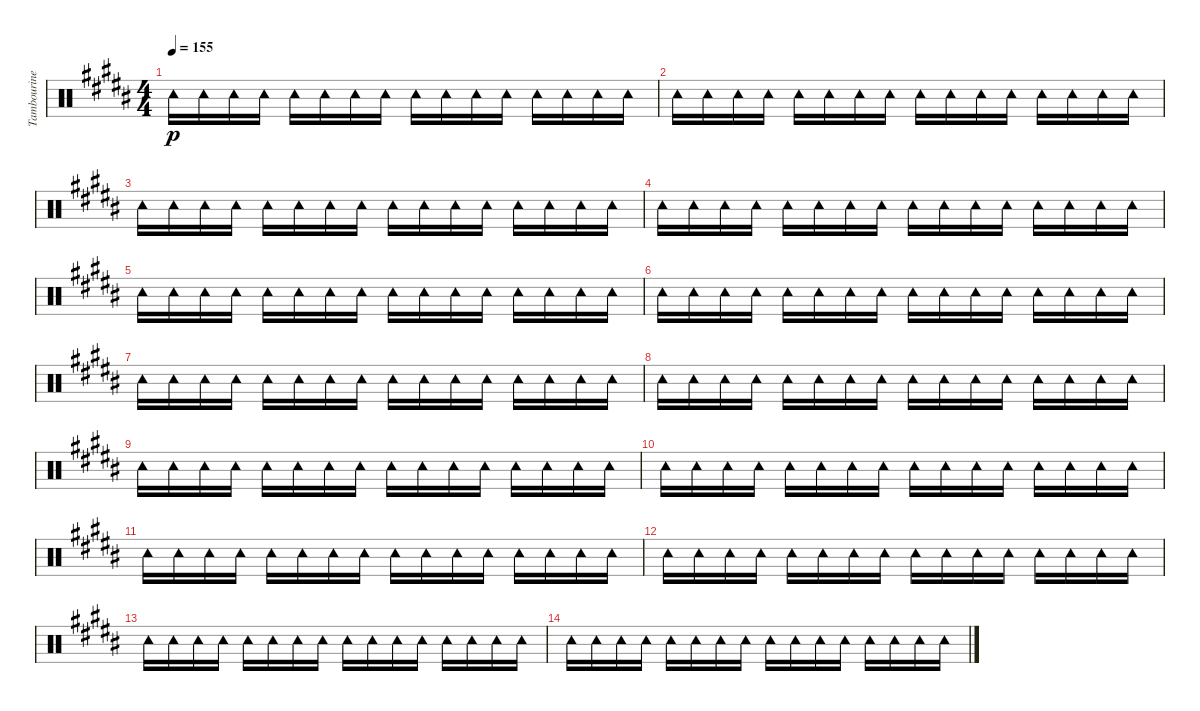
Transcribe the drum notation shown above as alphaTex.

\track ("Tambourine" "Tambourine") {instrument percussion}
\staff {score}
\articulation defaults
\ts (4 4)
\tempo 155
\clef neutral
\ks b "Tambourine (hit)".16{dy p} "Tambourine (hit)".16 "Tambourine (hit)".16 "Tambourine (hit)".16 "Tambourine (hit)".16 "Tambourine (hit)".16 "Tambourine (hit)".16 "Tambourine (hit)".16 "Tambourine (hit)".16 "Tambourine (hit)".16 "Tambourine (hit)".16 "Tambourine (hit)".16 "Tambourine (hit)".16 "Tambourine (hit)".16 "Tambourine (hit)".16 "Tambourine (hit)".16
|
"Tambourine (hit)".16 "Tambourine (hit)".16 "Tambourine (hit)".16 "Tambourine (hit)".16 "Tambourine (hit)".16 "Tambourine (hit)".16 "Tambourine (hit)".16 "Tambourine (hit)".16 "Tambourine (hit)".16 "Tambourine (hit)".16 "Tambourine (hit)".16 "Tambourine (hit)".16 "Tambourine (hit)".16 "Tambourine (hit)".16 "Tambourine (hit)".16 "Tambourine (hit)".16 |
"Tambourine (hit)".16 "Tambourine (hit)".16 "Tambourine (hit)".16 "Tambourine (hit)".16 "Tambourine (hit)".16 "Tambourine (hit)".16 "Tambourine (hit)".16 "Tambourine (hit)".16 "Tambourine (hit)".16 "Tambourine (hit)".16 "Tambourine (hit)".16 "Tambourine (hit)".16 "Tambourine (hit)".16 "Tambourine (hit)".16 "Tambourine (hit)".16 "Tambourine (hit)".16 |
"Tambourine (hit)".16 "Tambourine (hit)".16 "Tambourine (hit)".16 "Tambourine (hit)".16 "Tambourine (hit)".16 "Tambourine (hit)".16 "Tambourine (hit)".16 "Tambourine (hit)".16 "Tambourine (hit)".16 "Tambourine (hit)".16 "Tambourine (hit)".16 "Tambourine (hit)".16 "Tambourine (hit)".16 "Tambourine (hit)".16 "Tambourine (hit)".16 "Tambourine (hit)".16 |
"Tambourine (hit)".16 "Tambourine (hit)".16 "Tambourine (hit)".16 "Tambourine (hit)".16 "Tambourine (hit)".16 "Tambourine (hit)".16 "Tambourine (hit)".16 "Tambourine (hit)".16 "Tambourine (hit)".16 "Tambourine (hit)".16 "Tambourine (hit)".16 "Tambourine (hit)".16 "Tambourine (hit)".16 "Tambourine (hit)".16 "Tambourine (hit)".16 "Tambourine (hit)".16 |
"Tambourine (hit)".16 "Tambourine (hit)".16 "Tambourine (hit)".16 "Tambourine (hit)".16 "Tambourine (hit)".16 "Tambourine (hit)".16 "Tambourine (hit)".16 "Tambourine (hit)".16 "Tambourine (hit)".16 "Tambourine (hit)".16 "Tambourine (hit)".16 "Tambourine (hit)".16 "Tambourine (hit)".16 "Tambourine (hit)".16 "Tambourine (hit)".16 "Tambourine (hit)".16 |
"Tambourine (hit)".16 "Tambourine (hit)".16 "Tambourine (hit)".16 "Tambourine (hit)".16 "Tambourine (hit)".16 "Tambourine (hit)".16 "Tambourine (hit)".16 "Tambourine (hit)".16 "Tambourine (hit)".16 "Tambourine (hit)".16 "Tambourine (hit)".16 "Tambourine (hit)".16 "Tambourine (hit)".16 "Tambourine (hit)".16 "Tambourine (hit)".16 "Tambourine (hit)".16 |
"Tambourine (hit)".16 "Tambourine (hit)".16 "Tambourine (hit)".16 "Tambourine (hit)".16 "Tambourine (hit)".16 "Tambourine (hit)".16 "Tambourine (hit)".16 "Tambourine (hit)".16 "Tambourine (hit)".16 "Tambourine (hit)".16 "Tambourine (hit)".16 "Tambourine (hit)".16 "Tambourine (hit)".16 "Tambourine (hit)".16 "Tambourine (hit)".16 "Tambourine (hit)".16 |
"Tambourine (hit)".16 "Tambourine (hit)".16 "Tambourine (hit)".16 "Tambourine (hit)".16 "Tambourine (hit)".16 "Tambourine (hit)".16 "Tambourine (hit)".16 "Tambourine (hit)".16 "Tambourine (hit)".16 "Tambourine (hit)".16 "Tambourine (hit)".16 "Tambourine (hit)".16 "Tambourine (hit)".16 "Tambourine (hit)".16 "Tambourine (hit)".16 "Tambourine (hit)".16 |
"Tambourine (hit)".16 "Tambourine (hit)".16 "Tambourine (hit)".16 "Tambourine (hit)".16 "Tambourine (hit)".16 "Tambourine (hit)".16 "Tambourine (hit)".16 "Tambourine (hit)".16 "Tambourine (hit)".16 "Tambourine (hit)".16 "Tambourine (hit)".16 "Tambourine (hit)".16 "Tambourine (hit)".16 "Tambourine (hit)".16 "Tambourine (hit)".16 "Tambourine (hit)".16 |
"Tambourine (hit)".16 "Tambourine (hit)".16 "Tambourine (hit)".16 "Tambourine (hit)".16 "Tambourine (hit)".16 "Tambourine (hit)".16 "Tambourine (hit)".16 "Tambourine (hit)".16 "Tambourine (hit)".16 "Tambourine (hit)".16 "Tambourine (hit)".16 "Tambourine (hit)".16 "Tambourine (hit)".16 "Tambourine (hit)".16 "Tambourine (hit)".16 "Tambourine (hit)".16 |
"Tambourine (hit)".16 "Tambourine (hit)".16 "Tambourine (hit)".16 "Tambourine (hit)".16 "Tambourine (hit)".16 "Tambourine (hit)".16 "Tambourine (hit)".16 "Tambourine (hit)".16 "Tambourine (hit)".16 "Tambourine (hit)".16 "Tambourine (hit)".16 "Tambourine (hit)".16 "Tambourine (hit)".16 "Tambourine (hit)".16 "Tambourine (hit)".16 "Tambourine (hit)".16 |
"Tambourine (hit)".16 "Tambourine (hit)".16 "Tambourine (hit)".16 "Tambourine (hit)".16 "Tambourine (hit)".16 "Tambourine (hit)".16 "Tambourine (hit)".16 "Tambourine (hit)".16 "Tambourine (hit)".16 "Tambourine (hit)".16 "Tambourine (hit)".16 "Tambourine (hit)".16 "Tambourine (hit)".16 "Tambourine (hit)".16 "Tambourine (hit)".16 "Tambourine (hit)".16 |
"Tambourine (hit)".16 "Tambourine (hit)".16 "Tambourine (hit)".16 "Tambourine (hit)".16 "Tambourine (hit)".16 "Tambourine (hit)".16 "Tambourine (hit)".16 "Tambourine (hit)".16 "Tambourine (hit)".16 "Tambourine (hit)".16 "Tambourine (hit)".16 "Tambourine (hit)".16 "Tambourine (hit)".16 "Tambourine (hit)".16 "Tambourine (hit)".16 "Tambourine (hit)".16
